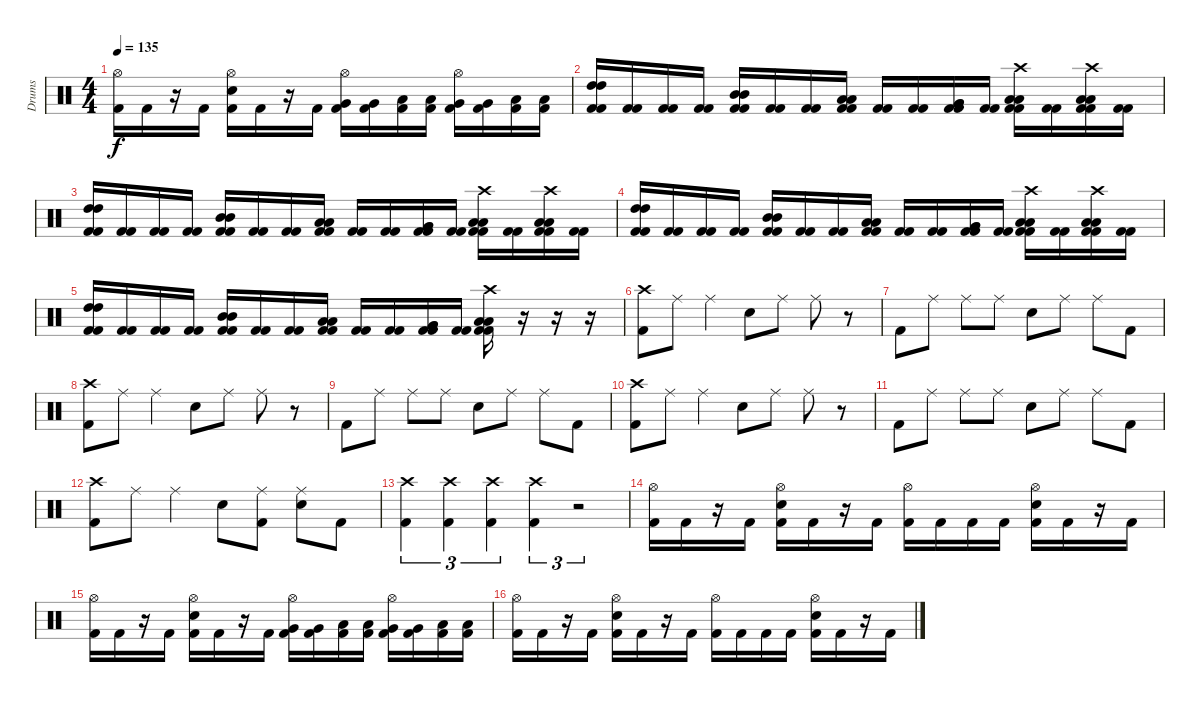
\track ("Drums" "Drums") {instrument percussion}
\staff {score}
\articulation defaults
\ts (4 4)
\tempo 135
\clef neutral
\ks c
("Hi-Hat (open)" "Kick (hit) 2").16{dy f} "Kick (hit) 2".16 r.16 "Kick (hit) 2".16 ("Hi-Hat (open)" "Electric Snare (hit)" "Kick (hit) 2").16 "Kick (hit) 2".16 r.16 "Kick (hit) 2".16 ("Hi-Hat (open)" "Very Low Tom (hit)" "Kick (hit) 2").16 ("Very Low Tom (hit)" "Kick (hit) 2").16 ("Low Floor Tom (hit)" "Kick (hit) 2").16 ("Low Floor Tom (hit)" "Kick (hit) 2").16 ("Hi-Hat (open)" "Very Low Tom (hit)" "Kick (hit) 2").16 ("Very Low Tom (hit)" "Kick (hit) 2").16 ("Low Floor Tom (hit)" "Kick (hit) 2").16 ("Low Floor Tom (hit)" "Kick (hit) 2").16 |
("High Tom (hit)" "High Tom (hit)" "Kick (hit) 2" "Kick (hit) 2").16 ("Kick (hit) 2" "Kick (hit) 2").16 ("Kick (hit) 2" "Kick (hit) 2").16 ("Kick (hit) 2" "Kick (hit) 2").16 ("Mid Tom (hit)" "Mid Tom (hit)" "Kick (hit) 2" "Kick (hit) 2").16 ("Kick (hit) 2" "Kick (hit) 2").16 ("Kick (hit) 2" "Kick (hit) 2").16 ("Low Tom (hit)" "Low Tom (hit)" "Kick (hit) 2" "Kick (hit) 2").16 ("Kick (hit) 2" "Kick (hit) 2").16 ("Kick (hit) 2" "Kick (hit) 2").16 ("Very Low Tom (hit)" "Very Low Tom (hit)" "Kick (hit) 2" "Kick (hit) 2").16 ("Kick (hit) 2" "Kick (hit) 2").16 ("Crash high (hit)" "Low Floor Tom (hit)" "Low Floor Tom (hit)" "Kick (hit) 2" "Kick (hit) 2").16 ("Kick (hit) 2" "Kick (hit) 2").16 ("Crash high (hit)" "Low Floor Tom (hit)" "Low Floor Tom (hit)" "Kick (hit) 2" "Kick (hit) 2").16 ("Kick (hit) 2" "Kick (hit) 2").16 |
("High Tom (hit)" "High Tom (hit)" "Kick (hit) 2" "Kick (hit) 2").16 ("Kick (hit) 2" "Kick (hit) 2").16 ("Kick (hit) 2" "Kick (hit) 2").16 ("Kick (hit) 2" "Kick (hit) 2").16 ("Mid Tom (hit)" "Mid Tom (hit)" "Kick (hit) 2" "Kick (hit) 2").16 ("Kick (hit) 2" "Kick (hit) 2").16 ("Kick (hit) 2" "Kick (hit) 2").16 ("Low Tom (hit)" "Low Tom (hit)" "Kick (hit) 2" "Kick (hit) 2").16 ("Kick (hit) 2" "Kick (hit) 2").16 ("Kick (hit) 2" "Kick (hit) 2").16 ("Very Low Tom (hit)" "Very Low Tom (hit)" "Kick (hit) 2" "Kick (hit) 2").16 ("Kick (hit) 2" "Kick (hit) 2").16 ("Crash high (hit)" "Low Floor Tom (hit)" "Low Floor Tom (hit)" "Kick (hit) 2" "Kick (hit) 2").16 ("Kick (hit) 2" "Kick (hit) 2").16 ("Crash high (hit)" "Low Floor Tom (hit)" "Low Floor Tom (hit)" "Kick (hit) 2" "Kick (hit) 2").16 ("Kick (hit) 2" "Kick (hit) 2").16 |
("High Tom (hit)" "High Tom (hit)" "Kick (hit) 2" "Kick (hit) 2").16 ("Kick (hit) 2" "Kick (hit) 2").16 ("Kick (hit) 2" "Kick (hit) 2").16 ("Kick (hit) 2" "Kick (hit) 2").16 ("Mid Tom (hit)" "Mid Tom (hit)" "Kick (hit) 2" "Kick (hit) 2").16 ("Kick (hit) 2" "Kick (hit) 2").16 ("Kick (hit) 2" "Kick (hit) 2").16 ("Low Tom (hit)" "Low Tom (hit)" "Kick (hit) 2" "Kick (hit) 2").16 ("Kick (hit) 2" "Kick (hit) 2").16 ("Kick (hit) 2" "Kick (hit) 2").16 ("Very Low Tom (hit)" "Very Low Tom (hit)" "Kick (hit) 2" "Kick (hit) 2").16 ("Kick (hit) 2" "Kick (hit) 2").16 ("Crash high (hit)" "Low Floor Tom (hit)" "Low Floor Tom (hit)" "Kick (hit) 2" "Kick (hit) 2").16 ("Kick (hit) 2" "Kick (hit) 2").16 ("Crash high (hit)" "Low Floor Tom (hit)" "Low Floor Tom (hit)" "Kick (hit) 2" "Kick (hit) 2").16 ("Kick (hit) 2" "Kick (hit) 2").16 |
("High Tom (hit)" "High Tom (hit)" "Kick (hit) 2" "Kick (hit) 2").16 ("Kick (hit) 2" "Kick (hit) 2").16 ("Kick (hit) 2" "Kick (hit) 2").16 ("Kick (hit) 2" "Kick (hit) 2").16 ("Mid Tom (hit)" "Mid Tom (hit)" "Kick (hit) 2" "Kick (hit) 2").16 ("Kick (hit) 2" "Kick (hit) 2").16 ("Kick (hit) 2" "Kick (hit) 2").16 ("Low Tom (hit)" "Low Tom (hit)" "Kick (hit) 2" "Kick (hit) 2").16 ("Kick (hit) 2" "Kick (hit) 2").16 ("Kick (hit) 2" "Kick (hit) 2").16 ("Very Low Tom (hit)" "Very Low Tom (hit)" "Kick (hit) 2" "Kick (hit) 2").16 ("Kick (hit) 2" "Kick (hit) 2").16 ("Crash high (hit)" "Low Floor Tom (hit)" "Low Floor Tom (hit)" "Kick (hit) 2" "Kick (hit) 2").16 r.16 r.16 r.16 |
("Crash high (hit)" "Kick (hit) 2").8 "Ride (middle)".8 "Ride (middle)".4 "Electric Snare (hit)".8 "Ride (middle)".8 "Ride (middle)".8 r.8 |
"Kick (hit) 2".8 "Ride (middle)".8 "Ride (middle)".8 "Ride (middle)".8 "Electric Snare (hit)".8 "Ride (middle)".8 "Ride (middle)".8 "Kick (hit) 2".8 |
("Crash high (hit)" "Kick (hit) 2").8 "Ride (middle)".8 "Ride (middle)".4 "Electric Snare (hit)".8 "Ride (middle)".8 "Ride (middle)".8 r.8 |
"Kick (hit) 2".8 "Ride (middle)".8 "Ride (middle)".8 "Ride (middle)".8 "Electric Snare (hit)".8 "Ride (middle)".8 "Ride (middle)".8 "Kick (hit) 2".8 |
("Crash high (hit)" "Kick (hit) 2").8 "Ride (middle)".8 "Ride (middle)".4 "Electric Snare (hit)".8 "Ride (middle)".8 "Ride (middle)".8 r.8 |
"Kick (hit) 2".8 "Ride (middle)".8 "Ride (middle)".8 "Ride (middle)".8 "Electric Snare (hit)".8 "Ride (middle)".8 "Ride (middle)".8 "Kick (hit) 2".8 |
("Crash high (hit)" "Kick (hit) 2").8 "Ride (middle)".8 "Ride (middle)".4 "Electric Snare (hit)".8 ("Ride (middle)" "Kick (hit) 2").8 ("Ride (middle)" "Electric Snare (hit)").8 "Kick (hit) 2".8 |
("Crash high (hit)" "Kick (hit) 2").4{tu (3 2)} ("Crash high (hit)" "Kick (hit) 2").4{tu (3 2)} ("Crash high (hit)" "Kick (hit) 2").4{tu (3 2)} ("Crash high (hit)" "Kick (hit) 2").4{tu (3 2)} r.2{tu (3 2)} |
("Hi-Hat (open)" "Kick (hit) 2").16 "Kick (hit) 2".16 r.16 "Kick (hit) 2".16 ("Hi-Hat (open)" "Electric Snare (hit)" "Kick (hit) 2").16 "Kick (hit) 2".16 r.16 "Kick (hit) 2".16 ("Hi-Hat (open)" "Kick (hit) 2").16 "Kick (hit) 2".16 "Kick (hit) 2".16 "Kick (hit) 2".16 ("Hi-Hat (open)" "Electric Snare (hit)" "Kick (hit) 2").16 "Kick (hit) 2".16 r.16 "Kick (hit) 2".16 |
("Hi-Hat (open)" "Kick (hit) 2").16 "Kick (hit) 2".16 r.16 "Kick (hit) 2".16 ("Hi-Hat (open)" "Electric Snare (hit)" "Kick (hit) 2").16 "Kick (hit) 2".16 r.16 "Kick (hit) 2".16 ("Hi-Hat (open)" "Very Low Tom (hit)" "Kick (hit) 2").16 ("Very Low Tom (hit)" "Kick (hit) 2").16 ("Low Floor Tom (hit)" "Kick (hit) 2").16 ("Low Floor Tom (hit)" "Kick (hit) 2").16 ("Hi-Hat (open)" "Very Low Tom (hit)" "Kick (hit) 2").16 ("Very Low Tom (hit)" "Kick (hit) 2").16 ("Low Floor Tom (hit)" "Kick (hit) 2").16 ("Low Floor Tom (hit)" "Kick (hit) 2").16 |
("Hi-Hat (open)" "Kick (hit) 2").16 "Kick (hit) 2".16 r.16 "Kick (hit) 2".16 ("Hi-Hat (open)" "Electric Snare (hit)" "Kick (hit) 2").16 "Kick (hit) 2".16 r.16 "Kick (hit) 2".16 ("Hi-Hat (open)" "Kick (hit) 2").16 "Kick (hit) 2".16 "Kick (hit) 2".16 "Kick (hit) 2".16 ("Hi-Hat (open)" "Electric Snare (hit)" "Kick (hit) 2").16 "Kick (hit) 2".16 r.16 "Kick (hit) 2".16
